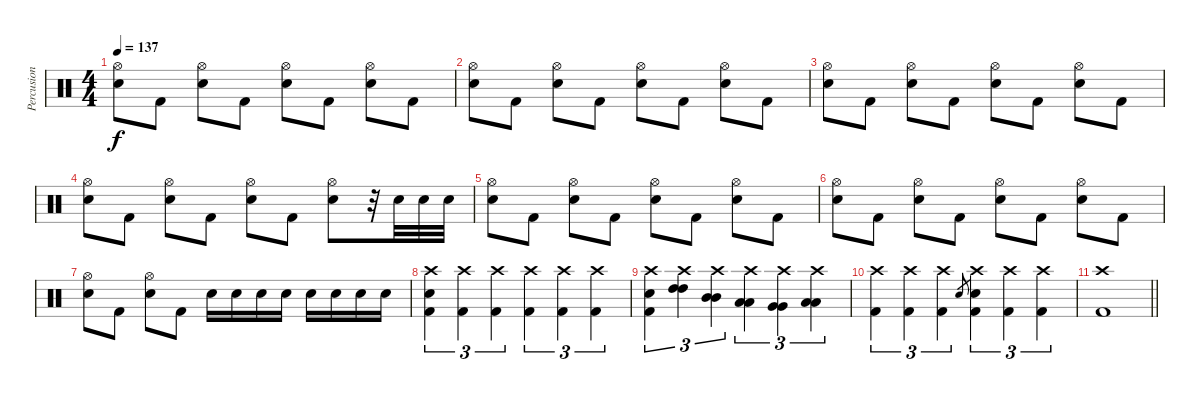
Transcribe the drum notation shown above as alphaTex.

\track ("Percusion" "Percusion") {instrument percussion}
\staff {score}
\articulation defaults
\ts (4 4)
\tempo 137
\clef neutral
\ks c
("Hi-Hat (open)" "Snare (hit) 2").8{dy f} "Kick (hit) 2".8 ("Hi-Hat (open)" "Snare (hit) 2").8 "Kick (hit) 2".8 ("Hi-Hat (open)" "Snare (hit) 2").8 "Kick (hit) 2".8 ("Hi-Hat (open)" "Snare (hit) 2").8 "Kick (hit) 2".8 |
("Hi-Hat (open)" "Snare (hit) 2").8 "Kick (hit) 2".8 ("Hi-Hat (open)" "Snare (hit) 2").8 "Kick (hit) 2".8 ("Hi-Hat (open)" "Snare (hit) 2").8 "Kick (hit) 2".8 ("Hi-Hat (open)" "Snare (hit) 2").8 "Kick (hit) 2".8 |
("Hi-Hat (open)" "Snare (hit) 2").8 "Kick (hit) 2".8 ("Hi-Hat (open)" "Snare (hit) 2").8 "Kick (hit) 2".8 ("Hi-Hat (open)" "Snare (hit) 2").8 "Kick (hit) 2".8 ("Hi-Hat (open)" "Snare (hit) 2").8 "Kick (hit) 2".8 |
("Hi-Hat (open)" "Snare (hit) 2").8 "Kick (hit) 2".8 ("Hi-Hat (open)" "Snare (hit) 2").8 "Kick (hit) 2".8 ("Hi-Hat (open)" "Snare (hit) 2").8 "Kick (hit) 2".8 ("Hi-Hat (open)" "Snare (hit) 2").8 r.32 "Snare (hit) 2".32 "Snare (hit) 2".32 "Snare (hit) 2".32 |
("Hi-Hat (open)" "Snare (hit) 2").8 "Kick (hit) 2".8 ("Hi-Hat (open)" "Snare (hit) 2").8 "Kick (hit) 2".8 ("Hi-Hat (open)" "Snare (hit) 2").8 "Kick (hit) 2".8 ("Hi-Hat (open)" "Snare (hit) 2").8 "Kick (hit) 2".8 |
("Hi-Hat (open)" "Snare (hit) 2").8 "Kick (hit) 2".8 ("Hi-Hat (open)" "Snare (hit) 2").8 "Kick (hit) 2".8 ("Hi-Hat (open)" "Snare (hit) 2").8 "Kick (hit) 2".8 ("Hi-Hat (open)" "Snare (hit) 2").8 "Kick (hit) 2".8 |
("Hi-Hat (open)" "Snare (hit) 2").8 "Kick (hit) 2".8 ("Hi-Hat (open)" "Snare (hit) 2").8 "Kick (hit) 2".8 "Snare (hit) 2".16 "Snare (hit) 2".16 "Snare (hit) 2".16 "Snare (hit) 2".16 "Snare (hit) 2".16 "Snare (hit) 2".16 "Snare (hit) 2".16 "Snare (hit) 2".16 |
("Crash high (hit)" "Snare (hit) 2" "Kick (hit) 2").4{tu (3 2)} ("Crash high (hit)" "Kick (hit) 2").4{tu (3 2)} ("Crash high (hit)" "Kick (hit) 2").4{tu (3 2)} ("Crash high (hit)" "Kick (hit) 2").4{tu (3 2)} ("Crash high (hit)" "Kick (hit) 2").4{tu (3 2)} ("Crash high (hit)" "Kick (hit) 2").4{tu (3 2)} |
("Crash high (hit)" "Snare (hit) 2" "Kick (hit) 2").4{tu (3 2)} ("Crash high (hit)" "High Tom (hit)" "High Tom (hit)").4{tu (3 2)} ("Crash high (hit)" "Mid Tom (hit)" "Mid Tom (hit)").4{tu (3 2)} ("Crash high (hit)" "Low Tom (hit)" "Low Tom (hit)").4{tu (3 2)} ("Crash high (hit)" "Very Low Tom (hit)" "Very Low Tom (hit)").4{tu (3 2)} ("Crash high (hit)" "Low Floor Tom (hit)" "Low Floor Tom (hit)").4{tu (3 2)} |
("Crash high (hit)" "Kick (hit) 2").4{tu (3 2)} ("Crash high (hit)" "Kick (hit) 2").4{tu (3 2)} ("Crash high (hit)" "Kick (hit) 2").4{tu (3 2)} "Snare (hit) 2".8{gr} ("Crash high (hit)" "Snare (hit) 2" "Kick (hit) 2").4{tu (3 2)} ("Crash high (hit)" "Kick (hit) 2").4{tu (3 2)} ("Crash high (hit)" "Kick (hit) 2").4{tu (3 2)} |
\barLineRight lightlight
("Crash high (hit)" "Kick (hit) 2").1
